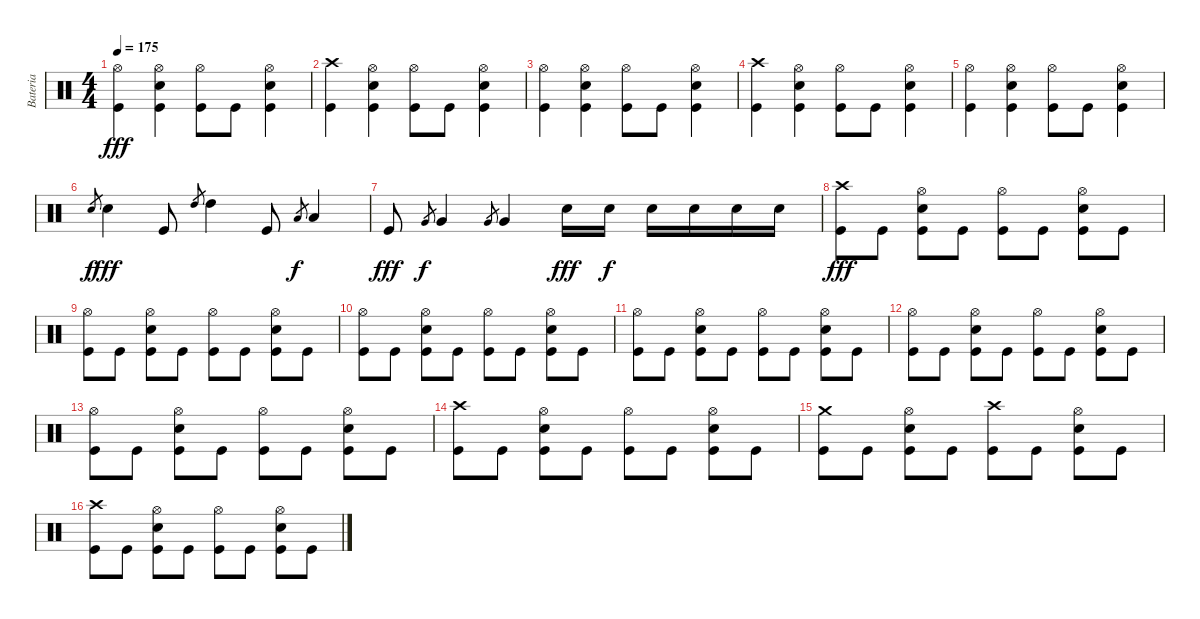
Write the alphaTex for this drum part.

\track ("Bateria" "Bateria") {instrument percussion}
\staff {score}
\articulation defaults
\ts (4 4)
\tempo 175
\clef neutral
\ks c
("Hi-Hat (open)" "Kick (hit)").4{dy fff} ("Hi-Hat (open)" "Electric Snare (hit)" "Kick (hit)").4 ("Hi-Hat (open)" "Kick (hit)").8 "Kick (hit)".8 ("Hi-Hat (open)" "Electric Snare (hit)" "Kick (hit)").4 |
("Crash high (hit)" "Kick (hit)").4 ("Hi-Hat (open)" "Electric Snare (hit)" "Kick (hit)").4 ("Hi-Hat (open)" "Kick (hit)").8 "Kick (hit)".8 ("Hi-Hat (open)" "Electric Snare (hit)" "Kick (hit)").4 |
("Hi-Hat (open)" "Kick (hit)").4 ("Hi-Hat (open)" "Electric Snare (hit)" "Kick (hit)").4 ("Hi-Hat (open)" "Kick (hit)").8 "Kick (hit)".8 ("Hi-Hat (open)" "Electric Snare (hit)" "Kick (hit)").4 |
("Crash high (hit)" "Kick (hit)").4 ("Hi-Hat (open)" "Electric Snare (hit)" "Kick (hit)").4 ("Hi-Hat (open)" "Kick (hit)").8 "Kick (hit)".8 ("Hi-Hat (open)" "Electric Snare (hit)" "Kick (hit)").4 |
("Hi-Hat (open)" "Kick (hit)").4 ("Hi-Hat (open)" "Electric Snare (hit)" "Kick (hit)").4 ("Hi-Hat (open)" "Kick (hit)").8 "Kick (hit)".8 ("Hi-Hat (open)" "Electric Snare (hit)" "Kick (hit)").4 |
"Electric Snare (hit)".8{gr dy f} "Electric Snare (hit)".4{dy fff} "Kick (hit)".8 "High Tom (hit)".8{gr} "High Tom (hit)".4 "Kick (hit)".8 "Low Tom (hit)".8{gr dy f} "Low Tom (hit)".4 |
"Kick (hit)".8{dy fff} "Very Low Tom (hit)".8{gr dy f} "Very Low Tom (hit)".4 "Very Low Tom (hit)".8{gr} "Very Low Tom (hit)".4 "Electric Snare (hit)".16{dy fff} "Electric Snare (hit)".16{dy f} "Electric Snare (hit)".16 "Electric Snare (hit)".16 "Electric Snare (hit)".16 "Electric Snare (hit)".16 |
("Crash high (hit)" "Kick (hit)").8{dy fff} "Kick (hit)".8 ("Hi-Hat (open)" "Electric Snare (hit)" "Kick (hit)").8 "Kick (hit)".8 ("Hi-Hat (open)" "Kick (hit)").8 "Kick (hit)".8 ("Hi-Hat (open)" "Electric Snare (hit)" "Kick (hit)").8 "Kick (hit)".8 |
("Hi-Hat (open)" "Kick (hit)").8 "Kick (hit)".8 ("Hi-Hat (open)" "Electric Snare (hit)" "Kick (hit)").8 "Kick (hit)".8 ("Hi-Hat (open)" "Kick (hit)").8 "Kick (hit)".8 ("Hi-Hat (open)" "Electric Snare (hit)" "Kick (hit)").8 "Kick (hit)".8 |
("Hi-Hat (open)" "Kick (hit)").8 "Kick (hit)".8 ("Hi-Hat (open)" "Electric Snare (hit)" "Kick (hit)").8 "Kick (hit)".8 ("Hi-Hat (open)" "Kick (hit)").8 "Kick (hit)".8 ("Hi-Hat (open)" "Electric Snare (hit)" "Kick (hit)").8 "Kick (hit)".8 |
("Hi-Hat (open)" "Kick (hit)").8 "Kick (hit)".8 ("Hi-Hat (open)" "Electric Snare (hit)" "Kick (hit)").8 "Kick (hit)".8 ("Hi-Hat (open)" "Kick (hit)").8 "Kick (hit)".8 ("Hi-Hat (open)" "Electric Snare (hit)" "Kick (hit)").8 "Kick (hit)".8 |
("Hi-Hat (open)" "Kick (hit)").8 "Kick (hit)".8 ("Hi-Hat (open)" "Electric Snare (hit)" "Kick (hit)").8 "Kick (hit)".8 ("Hi-Hat (open)" "Kick (hit)").8 "Kick (hit)".8 ("Hi-Hat (open)" "Electric Snare (hit)" "Kick (hit)").8 "Kick (hit)".8 |
("Hi-Hat (open)" "Kick (hit)").8 "Kick (hit)".8 ("Hi-Hat (open)" "Electric Snare (hit)" "Kick (hit)").8 "Kick (hit)".8 ("Hi-Hat (open)" "Kick (hit)").8 "Kick (hit)".8 ("Hi-Hat (open)" "Electric Snare (hit)" "Kick (hit)").8 "Kick (hit)".8 |
("Crash high (hit)" "Kick (hit)").8 "Kick (hit)".8 ("Hi-Hat (open)" "Electric Snare (hit)" "Kick (hit)").8 "Kick (hit)".8 ("Hi-Hat (open)" "Kick (hit)").8 "Kick (hit)".8 ("Hi-Hat (open)" "Electric Snare (hit)" "Kick (hit)").8 "Kick (hit)".8 |
("Crash medium (hit)" "Kick (hit)").8 "Kick (hit)".8 ("Hi-Hat (open)" "Electric Snare (hit)" "Kick (hit)").8 "Kick (hit)".8 ("Crash high (hit)" "Kick (hit)").8 "Kick (hit)".8 ("Hi-Hat (open)" "Electric Snare (hit)" "Kick (hit)").8 "Kick (hit)".8 |
("Crash high (hit)" "Kick (hit)").8 "Kick (hit)".8 ("Hi-Hat (open)" "Electric Snare (hit)" "Kick (hit)").8 "Kick (hit)".8 ("Hi-Hat (open)" "Kick (hit)").8 "Kick (hit)".8 ("Hi-Hat (open)" "Electric Snare (hit)" "Kick (hit)").8 "Kick (hit)".8
